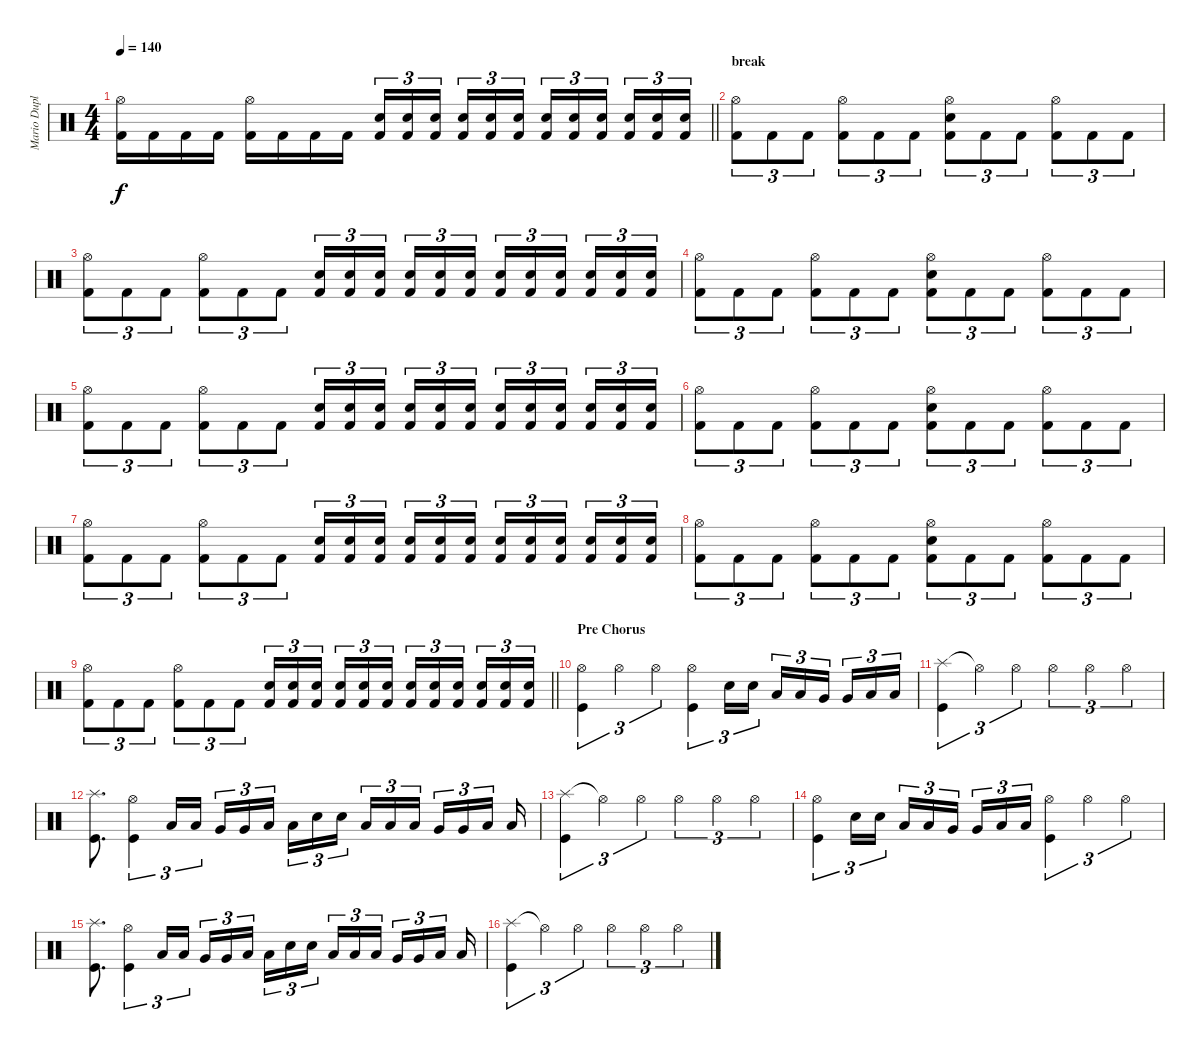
\track ("Mario Duplantier" "Mario Dupl") {instrument percussion}
\staff {score}
\articulation defaults
\ts (4 4)
\tempo 140
\clef neutral
\barLineRight lightlight
\ks c
("Hi-Hat (open)" "Kick (hit) 2").16{dy f} "Kick (hit) 2".16 "Kick (hit) 2".16 "Kick (hit) 2".16 ("Hi-Hat (open)" "Kick (hit) 2").16 "Kick (hit) 2".16 "Kick (hit) 2".16 "Kick (hit) 2".16 ("Snare (hit) 2" "Kick (hit) 2").16{tu (3 2)} ("Snare (hit) 2" "Kick (hit) 2").16{tu (3 2)} ("Snare (hit) 2" "Kick (hit) 2").16{tu (3 2) beam splitsecondary} ("Snare (hit) 2" "Kick (hit) 2").16{tu (3 2)} ("Snare (hit) 2" "Kick (hit) 2").16{tu (3 2)} ("Snare (hit) 2" "Kick (hit) 2").16{tu (3 2)} ("Snare (hit) 2" "Kick (hit) 2").16{tu (3 2)} ("Snare (hit) 2" "Kick (hit) 2").16{tu (3 2)} ("Snare (hit) 2" "Kick (hit) 2").16{tu (3 2) beam splitsecondary} ("Snare (hit) 2" "Kick (hit) 2").16{tu (3 2)} ("Snare (hit) 2" "Kick (hit) 2").16{tu (3 2)} ("Snare (hit) 2" "Kick (hit) 2").16{tu (3 2)} |
\section ("" "break")
("Hi-Hat (open)" "Kick (hit) 2").8{tu (3 2)} "Kick (hit) 2".8{tu (3 2)} "Kick (hit) 2".8{tu (3 2)} ("Hi-Hat (open)" "Kick (hit) 2").8{tu (3 2)} "Kick (hit) 2".8{tu (3 2)} "Kick (hit) 2".8{tu (3 2)} ("Hi-Hat (open)" "Electric Snare (hit)" "Kick (hit) 2").8{tu (3 2)} "Kick (hit) 2".8{tu (3 2)} "Kick (hit) 2".8{tu (3 2)} ("Hi-Hat (open)" "Kick (hit) 2").8{tu (3 2)} "Kick (hit) 2".8{tu (3 2)} "Kick (hit) 2".8{tu (3 2)} |
("Hi-Hat (open)" "Kick (hit) 2").8{tu (3 2)} "Kick (hit) 2".8{tu (3 2)} "Kick (hit) 2".8{tu (3 2)} ("Hi-Hat (open)" "Kick (hit) 2").8{tu (3 2)} "Kick (hit) 2".8{tu (3 2)} "Kick (hit) 2".8{tu (3 2)} ("Electric Snare (hit)" "Kick (hit) 2").16{tu (3 2)} ("Electric Snare (hit)" "Kick (hit) 2").16{tu (3 2)} ("Electric Snare (hit)" "Kick (hit) 2").16{tu (3 2) beam splitsecondary} ("Electric Snare (hit)" "Kick (hit) 2").16{tu (3 2)} ("Electric Snare (hit)" "Kick (hit) 2").16{tu (3 2)} ("Electric Snare (hit)" "Kick (hit) 2").16{tu (3 2)} ("Electric Snare (hit)" "Kick (hit) 2").16{tu (3 2)} ("Electric Snare (hit)" "Kick (hit) 2").16{tu (3 2)} ("Electric Snare (hit)" "Kick (hit) 2").16{tu (3 2) beam splitsecondary} ("Electric Snare (hit)" "Kick (hit) 2").16{tu (3 2)} ("Electric Snare (hit)" "Kick (hit) 2").16{tu (3 2)} ("Electric Snare (hit)" "Kick (hit) 2").16{tu (3 2)} |
("Hi-Hat (open)" "Kick (hit) 2").8{tu (3 2)} "Kick (hit) 2".8{tu (3 2)} "Kick (hit) 2".8{tu (3 2)} ("Hi-Hat (open)" "Kick (hit) 2").8{tu (3 2)} "Kick (hit) 2".8{tu (3 2)} "Kick (hit) 2".8{tu (3 2)} ("Hi-Hat (open)" "Electric Snare (hit)" "Kick (hit) 2").8{tu (3 2)} "Kick (hit) 2".8{tu (3 2)} "Kick (hit) 2".8{tu (3 2)} ("Hi-Hat (open)" "Kick (hit) 2").8{tu (3 2)} "Kick (hit) 2".8{tu (3 2)} "Kick (hit) 2".8{tu (3 2)} |
("Hi-Hat (open)" "Kick (hit) 2").8{tu (3 2)} "Kick (hit) 2".8{tu (3 2)} "Kick (hit) 2".8{tu (3 2)} ("Hi-Hat (open)" "Kick (hit) 2").8{tu (3 2)} "Kick (hit) 2".8{tu (3 2)} "Kick (hit) 2".8{tu (3 2)} ("Electric Snare (hit)" "Kick (hit) 2").16{tu (3 2)} ("Electric Snare (hit)" "Kick (hit) 2").16{tu (3 2)} ("Electric Snare (hit)" "Kick (hit) 2").16{tu (3 2) beam splitsecondary} ("Electric Snare (hit)" "Kick (hit) 2").16{tu (3 2)} ("Electric Snare (hit)" "Kick (hit) 2").16{tu (3 2)} ("Electric Snare (hit)" "Kick (hit) 2").16{tu (3 2)} ("Electric Snare (hit)" "Kick (hit) 2").16{tu (3 2)} ("Electric Snare (hit)" "Kick (hit) 2").16{tu (3 2)} ("Electric Snare (hit)" "Kick (hit) 2").16{tu (3 2) beam splitsecondary} ("Electric Snare (hit)" "Kick (hit) 2").16{tu (3 2)} ("Electric Snare (hit)" "Kick (hit) 2").16{tu (3 2)} ("Electric Snare (hit)" "Kick (hit) 2").16{tu (3 2)} |
("Hi-Hat (open)" "Kick (hit) 2").8{tu (3 2)} "Kick (hit) 2".8{tu (3 2)} "Kick (hit) 2".8{tu (3 2)} ("Hi-Hat (open)" "Kick (hit) 2").8{tu (3 2)} "Kick (hit) 2".8{tu (3 2)} "Kick (hit) 2".8{tu (3 2)} ("Hi-Hat (open)" "Electric Snare (hit)" "Kick (hit) 2").8{tu (3 2)} "Kick (hit) 2".8{tu (3 2)} "Kick (hit) 2".8{tu (3 2)} ("Hi-Hat (open)" "Kick (hit) 2").8{tu (3 2)} "Kick (hit) 2".8{tu (3 2)} "Kick (hit) 2".8{tu (3 2)} |
("Hi-Hat (open)" "Kick (hit) 2").8{tu (3 2)} "Kick (hit) 2".8{tu (3 2)} "Kick (hit) 2".8{tu (3 2)} ("Hi-Hat (open)" "Kick (hit) 2").8{tu (3 2)} "Kick (hit) 2".8{tu (3 2)} "Kick (hit) 2".8{tu (3 2)} ("Electric Snare (hit)" "Kick (hit) 2").16{tu (3 2)} ("Electric Snare (hit)" "Kick (hit) 2").16{tu (3 2)} ("Electric Snare (hit)" "Kick (hit) 2").16{tu (3 2) beam splitsecondary} ("Electric Snare (hit)" "Kick (hit) 2").16{tu (3 2)} ("Electric Snare (hit)" "Kick (hit) 2").16{tu (3 2)} ("Electric Snare (hit)" "Kick (hit) 2").16{tu (3 2)} ("Electric Snare (hit)" "Kick (hit) 2").16{tu (3 2)} ("Electric Snare (hit)" "Kick (hit) 2").16{tu (3 2)} ("Electric Snare (hit)" "Kick (hit) 2").16{tu (3 2) beam splitsecondary} ("Electric Snare (hit)" "Kick (hit) 2").16{tu (3 2)} ("Electric Snare (hit)" "Kick (hit) 2").16{tu (3 2)} ("Electric Snare (hit)" "Kick (hit) 2").16{tu (3 2)} |
("Hi-Hat (open)" "Kick (hit) 2").8{tu (3 2)} "Kick (hit) 2".8{tu (3 2)} "Kick (hit) 2".8{tu (3 2)} ("Hi-Hat (open)" "Kick (hit) 2").8{tu (3 2)} "Kick (hit) 2".8{tu (3 2)} "Kick (hit) 2".8{tu (3 2)} ("Hi-Hat (open)" "Electric Snare (hit)" "Kick (hit) 2").8{tu (3 2)} "Kick (hit) 2".8{tu (3 2)} "Kick (hit) 2".8{tu (3 2)} ("Hi-Hat (open)" "Kick (hit) 2").8{tu (3 2)} "Kick (hit) 2".8{tu (3 2)} "Kick (hit) 2".8{tu (3 2)} |
\barLineRight lightlight
("Hi-Hat (open)" "Kick (hit) 2").8{tu (3 2)} "Kick (hit) 2".8{tu (3 2)} "Kick (hit) 2".8{tu (3 2)} ("Hi-Hat (open)" "Kick (hit) 2").8{tu (3 2)} "Kick (hit) 2".8{tu (3 2)} "Kick (hit) 2".8{tu (3 2)} ("Electric Snare (hit)" "Kick (hit) 2").16{tu (3 2)} ("Electric Snare (hit)" "Kick (hit) 2").16{tu (3 2)} ("Electric Snare (hit)" "Kick (hit) 2").16{tu (3 2) beam splitsecondary} ("Electric Snare (hit)" "Kick (hit) 2").16{tu (3 2)} ("Electric Snare (hit)" "Kick (hit) 2").16{tu (3 2)} ("Electric Snare (hit)" "Kick (hit) 2").16{tu (3 2)} ("Electric Snare (hit)" "Kick (hit) 2").16{tu (3 2)} ("Electric Snare (hit)" "Kick (hit) 2").16{tu (3 2)} ("Electric Snare (hit)" "Kick (hit) 2").16{tu (3 2) beam splitsecondary} ("Electric Snare (hit)" "Kick (hit) 2").16{tu (3 2)} ("Electric Snare (hit)" "Kick (hit) 2").16{tu (3 2)} ("Electric Snare (hit)" "Kick (hit) 2").16{tu (3 2)} |
\section ("" "Pre Chorus")
("Hi-Hat (open)" "Kick (hit)").4{tu (3 2)} "Hi-Hat (open)".4{tu (3 2)} "Hi-Hat (open)".4{tu (3 2)} ("Hi-Hat (open)" "Kick (hit)").4{tu (3 2)} "Electric Snare (hit)".16{tu (3 2)} "Electric Snare (hit)".16{tu (3 2)} "Low Tom (hit)".16{tu (3 2)} "Low Tom (hit)".16{tu (3 2)} "Very Low Tom (hit)".16{tu (3 2) beam splitsecondary} "Very Low Tom (hit)".16{tu (3 2)} "Low Floor Tom (hit)".16{tu (3 2)} "Low Floor Tom (hit)".16{tu (3 2)} |
("Splash (hit)" "Kick (hit)").4{tu (3 2)} "Hi-Hat (open)"{t}.4{tu (3 2)} "Hi-Hat (open)".4{tu (3 2)} "Hi-Hat (open)".4{tu (3 2)} "Hi-Hat (open)".4{tu (3 2)} "Hi-Hat (open)".4{tu (3 2)} |
("Splash (hit)" "Kick (hit)").8{d} ("Hi-Hat (open)" "Kick (hit)").4{tu (3 2)} "Low Tom (hit)".16{tu (3 2)} "Low Tom (hit)".16{tu (3 2) beam splitsecondary} "Very Low Tom (hit)".16{tu (3 2)} "Very Low Tom (hit)".16{tu (3 2)} "Low Floor Tom (hit)".16{tu (3 2) beam splitsecondary} "Low Floor Tom (hit)".16{tu (3 2)} "Electric Snare (hit)".16{tu (3 2)} "Electric Snare (hit)".16{tu (3 2) beam splitsecondary} "Low Tom (hit)".16{tu (3 2)} "Low Tom (hit)".16{tu (3 2)} "Low Tom (hit)".16{tu (3 2) beam splitsecondary} "Very Low Tom (hit)".16{tu (3 2)} "Very Low Tom (hit)".16{tu (3 2)} "Low Floor Tom (hit)".16{tu (3 2) beam splitsecondary} "Low Floor Tom (hit)".16 |
("Splash (hit)" "Kick (hit)").4{tu (3 2)} "Hi-Hat (open)"{t}.4{tu (3 2)} "Hi-Hat (open)".4{tu (3 2)} "Hi-Hat (open)".4{tu (3 2)} "Hi-Hat (open)".4{tu (3 2)} "Hi-Hat (open)".4{tu (3 2)} |
("Hi-Hat (open)" "Kick (hit)").4{tu (3 2)} "Electric Snare (hit)".16{tu (3 2)} "Electric Snare (hit)".16{tu (3 2)} "Low Tom (hit)".16{tu (3 2)} "Low Tom (hit)".16{tu (3 2)} "Very Low Tom (hit)".16{tu (3 2) beam splitsecondary} "Very Low Tom (hit)".16{tu (3 2)} "Low Floor Tom (hit)".16{tu (3 2)} "Low Floor Tom (hit)".16{tu (3 2)} ("Hi-Hat (open)" "Kick (hit)").4{tu (3 2)} "Hi-Hat (open)".4{tu (3 2)} "Hi-Hat (open)".4{tu (3 2)} |
("Splash (hit)" "Kick (hit)").8{d} ("Hi-Hat (open)" "Kick (hit)").4{tu (3 2)} "Low Tom (hit)".16{tu (3 2)} "Low Tom (hit)".16{tu (3 2) beam splitsecondary} "Very Low Tom (hit)".16{tu (3 2)} "Very Low Tom (hit)".16{tu (3 2)} "Low Floor Tom (hit)".16{tu (3 2) beam splitsecondary} "Low Floor Tom (hit)".16{tu (3 2)} "Electric Snare (hit)".16{tu (3 2)} "Electric Snare (hit)".16{tu (3 2) beam splitsecondary} "Low Tom (hit)".16{tu (3 2)} "Low Tom (hit)".16{tu (3 2)} "Low Tom (hit)".16{tu (3 2) beam splitsecondary} "Very Low Tom (hit)".16{tu (3 2)} "Very Low Tom (hit)".16{tu (3 2)} "Low Floor Tom (hit)".16{tu (3 2) beam splitsecondary} "Low Floor Tom (hit)".16 |
("Splash (hit)" "Kick (hit)").4{tu (3 2)} "Hi-Hat (open)"{t}.4{tu (3 2)} "Hi-Hat (open)".4{tu (3 2)} "Hi-Hat (open)".4{tu (3 2)} "Hi-Hat (open)".4{tu (3 2)} "Hi-Hat (open)".4{tu (3 2)}
